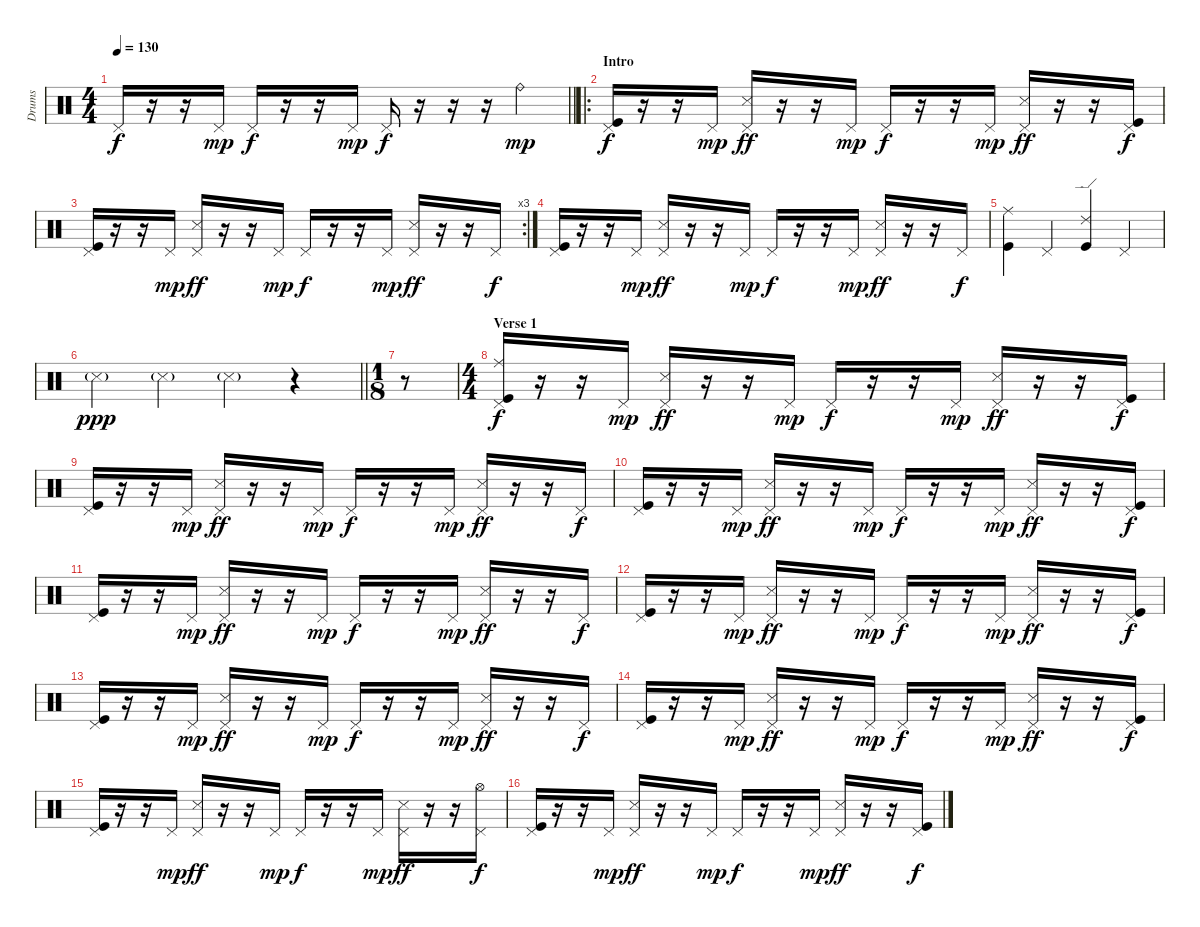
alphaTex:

\track ("Drums" "Drums") {instrument percussion}
\staff {score}
\articulation defaults
\ts (4 4)
\tempo 130
\clef neutral
\barLineRight lightlight
\ks c "Pedal Hi-Hat (hit)".16{dy f}
r.16 r.16 "Pedal Hi-Hat (hit)".16{dy mp} "Pedal Hi-Hat (hit)".16{dy f} r.16 r.16 "Pedal Hi-Hat (hit)".16{dy mp} "Pedal Hi-Hat (hit)".16{dy f} r.16 r.16 r.16 "Ride (bell)".4{dy mp} |
\ro
\section ("" "Intro")
("Pedal Hi-Hat (hit)" "Kick (hit)").16{dy f} r.16 r.16 "Pedal Hi-Hat (hit)".16{dy mp} ("Pedal Hi-Hat (hit)" "Snare (side stick) 3").16{dy ff} r.16 r.16 "Pedal Hi-Hat (hit)".16{dy mp} "Pedal Hi-Hat (hit)".16{dy f} r.16 r.16 "Pedal Hi-Hat (hit)".16{dy mp} ("Pedal Hi-Hat (hit)" "Snare (side stick) 3").16{dy ff} r.16 r.16 ("Pedal Hi-Hat (hit)" "Kick (hit)").16{dy f} |
\rc 3
("Pedal Hi-Hat (hit)" "Kick (hit)").16 r.16 r.16 "Pedal Hi-Hat (hit)".16{dy mp} ("Pedal Hi-Hat (hit)" "Snare (side stick) 3").16{dy ff} r.16 r.16 "Pedal Hi-Hat (hit)".16{dy mp} "Pedal Hi-Hat (hit)".16{dy f} r.16 r.16 "Pedal Hi-Hat (hit)".16{dy mp} ("Pedal Hi-Hat (hit)" "Snare (side stick) 3").16{dy ff} r.16 r.16 "Pedal Hi-Hat (hit)".16{dy f} |
("Pedal Hi-Hat (hit)" "Kick (hit)").16 r.16 r.16 "Pedal Hi-Hat (hit)".16{dy mp} ("Pedal Hi-Hat (hit)" "Snare (side stick) 3").16{dy ff} r.16 r.16 "Pedal Hi-Hat (hit)".16{dy mp} "Pedal Hi-Hat (hit)".16{dy f} r.16 r.16 "Pedal Hi-Hat (hit)".16{dy mp} ("Pedal Hi-Hat (hit)" "Snare (side stick) 3").16{dy ff} r.16 r.16 "Pedal Hi-Hat (hit)".16{dy f} |
("Ride (middle)" "Kick (hit)").4 "Pedal Hi-Hat (hit)".4 ("Ride (edge) 2" "Kick (hit)").4 "Pedal Hi-Hat (hit)".4 |
\barLineRight lightlight "Metronome (hit)"{g}.4{dy ppp} "Metronome (hit)"{g}.4 "Metronome (hit)"{g}.4
r.4 |
\ts (1 8)
r.8 |
\ts (4 4)
\section ("" "Verse 1")
("Pedal Hi-Hat (hit)" "Ride (middle)" "Kick (hit)").16{dy f} r.16 r.16 "Pedal Hi-Hat (hit)".16{dy mp} ("Pedal Hi-Hat (hit)" "Snare (side stick) 3").16{dy ff} r.16 r.16 "Pedal Hi-Hat (hit)".16{dy mp} "Pedal Hi-Hat (hit)".16{dy f} r.16 r.16 "Pedal Hi-Hat (hit)".16{dy mp} ("Pedal Hi-Hat (hit)" "Snare (side stick) 3").16{dy ff} r.16 r.16 ("Pedal Hi-Hat (hit)" "Kick (hit)").16{dy f} |
("Pedal Hi-Hat (hit)" "Kick (hit)").16 r.16 r.16 "Pedal Hi-Hat (hit)".16{dy mp} ("Pedal Hi-Hat (hit)" "Snare (side stick) 3").16{dy ff} r.16 r.16 "Pedal Hi-Hat (hit)".16{dy mp} "Pedal Hi-Hat (hit)".16{dy f} r.16 r.16 "Pedal Hi-Hat (hit)".16{dy mp} ("Pedal Hi-Hat (hit)" "Snare (side stick) 3").16{dy ff} r.16 r.16 "Pedal Hi-Hat (hit)".16{dy f} |
("Pedal Hi-Hat (hit)" "Kick (hit)").16 r.16 r.16 "Pedal Hi-Hat (hit)".16{dy mp} ("Pedal Hi-Hat (hit)" "Snare (side stick) 3").16{dy ff} r.16 r.16 "Pedal Hi-Hat (hit)".16{dy mp} "Pedal Hi-Hat (hit)".16{dy f} r.16 r.16 "Pedal Hi-Hat (hit)".16{dy mp} ("Pedal Hi-Hat (hit)" "Snare (side stick) 3").16{dy ff} r.16 r.16 ("Pedal Hi-Hat (hit)" "Kick (hit)").16{dy f} |
("Pedal Hi-Hat (hit)" "Kick (hit)").16 r.16 r.16 "Pedal Hi-Hat (hit)".16{dy mp} ("Pedal Hi-Hat (hit)" "Snare (side stick) 3").16{dy ff} r.16 r.16 "Pedal Hi-Hat (hit)".16{dy mp} "Pedal Hi-Hat (hit)".16{dy f} r.16 r.16 "Pedal Hi-Hat (hit)".16{dy mp} ("Pedal Hi-Hat (hit)" "Snare (side stick) 3").16{dy ff} r.16 r.16 "Pedal Hi-Hat (hit)".16{dy f} |
("Pedal Hi-Hat (hit)" "Kick (hit)").16 r.16 r.16 "Pedal Hi-Hat (hit)".16{dy mp} ("Pedal Hi-Hat (hit)" "Snare (side stick) 3").16{dy ff} r.16 r.16 "Pedal Hi-Hat (hit)".16{dy mp} "Pedal Hi-Hat (hit)".16{dy f} r.16 r.16 "Pedal Hi-Hat (hit)".16{dy mp} ("Pedal Hi-Hat (hit)" "Snare (side stick) 3").16{dy ff} r.16 r.16 ("Pedal Hi-Hat (hit)" "Kick (hit)").16{dy f} |
("Pedal Hi-Hat (hit)" "Kick (hit)").16 r.16 r.16 "Pedal Hi-Hat (hit)".16{dy mp} ("Pedal Hi-Hat (hit)" "Snare (side stick) 3").16{dy ff} r.16 r.16 "Pedal Hi-Hat (hit)".16{dy mp} "Pedal Hi-Hat (hit)".16{dy f} r.16 r.16 "Pedal Hi-Hat (hit)".16{dy mp} ("Pedal Hi-Hat (hit)" "Snare (side stick) 3").16{dy ff} r.16 r.16 "Pedal Hi-Hat (hit)".16{dy f} |
("Pedal Hi-Hat (hit)" "Kick (hit)").16 r.16 r.16 "Pedal Hi-Hat (hit)".16{dy mp} ("Pedal Hi-Hat (hit)" "Snare (side stick) 3").16{dy ff} r.16 r.16 "Pedal Hi-Hat (hit)".16{dy mp} "Pedal Hi-Hat (hit)".16{dy f} r.16 r.16 "Pedal Hi-Hat (hit)".16{dy mp} ("Pedal Hi-Hat (hit)" "Snare (side stick) 3").16{dy ff} r.16 r.16 ("Pedal Hi-Hat (hit)" "Kick (hit)").16{dy f} |
("Pedal Hi-Hat (hit)" "Kick (hit)").16 r.16 r.16 "Pedal Hi-Hat (hit)".16{dy mp} ("Pedal Hi-Hat (hit)" "Snare (side stick) 3").16{dy ff} r.16 r.16 "Pedal Hi-Hat (hit)".16{dy mp} "Pedal Hi-Hat (hit)".16{dy f} r.16 r.16 "Pedal Hi-Hat (hit)".16{dy mp} ("Pedal Hi-Hat (hit)" "Snare (side stick) 3").16{dy ff} r.16 r.16 ("Pedal Hi-Hat (hit)" "Hi-Hat (open)").16{dy f} |
("Pedal Hi-Hat (hit)" "Kick (hit)").16 r.16 r.16 "Pedal Hi-Hat (hit)".16{dy mp} ("Pedal Hi-Hat (hit)" "Snare (side stick) 3").16{dy ff} r.16 r.16 "Pedal Hi-Hat (hit)".16{dy mp} "Pedal Hi-Hat (hit)".16{dy f} r.16 r.16 "Pedal Hi-Hat (hit)".16{dy mp} ("Pedal Hi-Hat (hit)" "Snare (side stick) 3").16{dy ff} r.16 r.16 ("Pedal Hi-Hat (hit)" "Kick (hit)").16{dy f}
